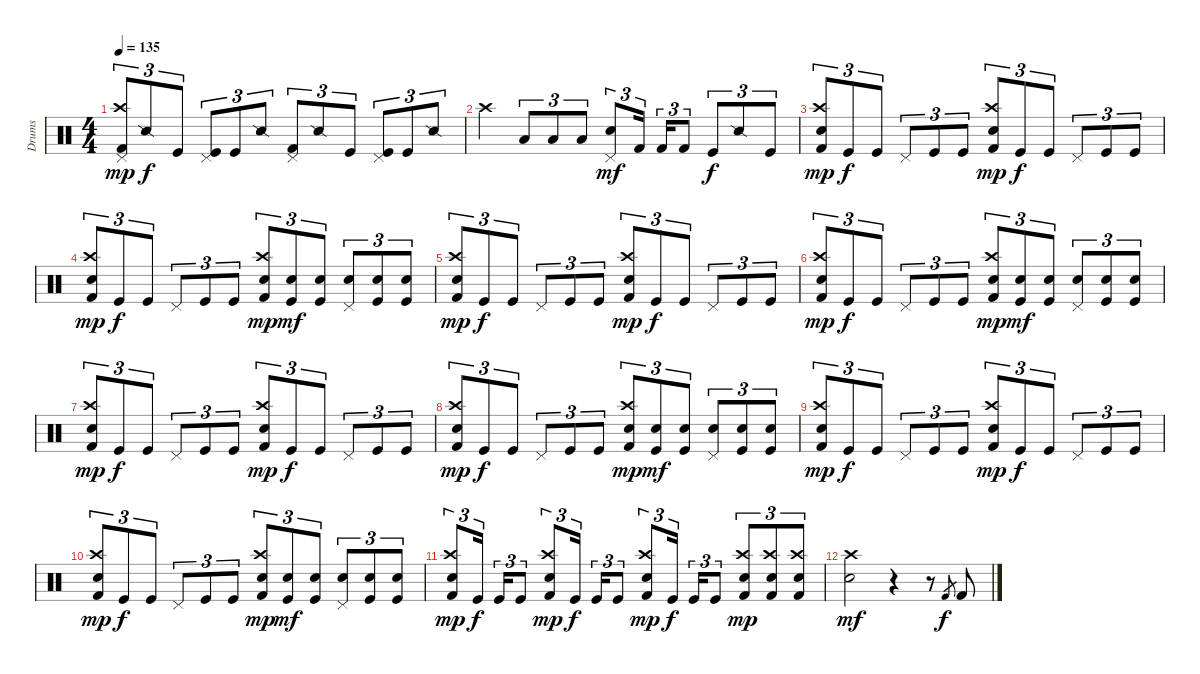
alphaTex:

\track ("Drums" "Drums") {instrument percussion}
\staff {score}
\articulation defaults
\ts (4 4)
\tempo 135
\clef neutral
\ks c
("Kick (hit) 2" "Crash high (hit)" "Pedal Hi-Hat (hit)").8{tu (3 2) dy mp} "Snare (side stick) 2".8{tu (3 2) dy f} "Kick (hit)".8{tu (3 2)} ("Kick (hit)" "Pedal Hi-Hat (hit)").8{tu (3 2)} "Kick (hit)".8{tu (3 2)} "Snare (side stick) 2".8{tu (3 2)} ("Kick (hit) 2" "Pedal Hi-Hat (hit)").8{tu (3 2)} "Snare (side stick) 2".8{tu (3 2)} "Kick (hit)".8{tu (3 2)} ("Kick (hit)" "Pedal Hi-Hat (hit)").8{tu (3 2)} "Kick (hit)".8{tu (3 2)} "Snare (side stick) 2".8{tu (3 2)} |
"Crash high (hit)".4 "Low Floor Tom (hit)".8{tu (3 2)} "Low Floor Tom (hit)".8{tu (3 2)} "Low Floor Tom (hit)".8{tu (3 2)} ("Snare (hit) 2" "Pedal Hi-Hat (hit)").8{tu (3 2) dy mf} "Kick (hit) 2".16{tu (3 2)} "Kick (hit) 2".16{tu (3 2)} "Kick (hit) 2".8{tu (3 2)} "Kick (hit)".8{tu (3 2) dy f} "Snare (side stick) 2".8{tu (3 2)} "Kick (hit)".8{tu (3 2)} |
("Kick (hit) 2" "Snare (hit) 2" "Crash high (hit)").8{tu (3 2) dy mp} "Kick (hit)".8{tu (3 2) dy f} "Kick (hit)".8{tu (3 2)} "Pedal Hi-Hat (hit)".8{tu (3 2)} "Kick (hit)".8{tu (3 2)} "Kick (hit)".8{tu (3 2)} ("Kick (hit) 2" "Snare (hit) 2" "Crash high (hit)").8{tu (3 2) dy mp} "Kick (hit)".8{tu (3 2) dy f} "Kick (hit)".8{tu (3 2)} "Pedal Hi-Hat (hit)".8{tu (3 2)} "Kick (hit)".8{tu (3 2)} "Kick (hit)".8{tu (3 2)} |
("Kick (hit) 2" "Snare (hit) 2" "Crash high (hit)").8{tu (3 2) dy mp} "Kick (hit)".8{tu (3 2) dy f} "Kick (hit)".8{tu (3 2)} "Pedal Hi-Hat (hit)".8{tu (3 2)} "Kick (hit)".8{tu (3 2)} "Kick (hit)".8{tu (3 2)} ("Kick (hit) 2" "Snare (hit) 2" "Crash high (hit)").8{tu (3 2) dy mp} ("Kick (hit)" "Snare (hit) 2").8{tu (3 2) dy mf} ("Kick (hit)" "Snare (hit) 2").8{tu (3 2)} ("Pedal Hi-Hat (hit)" "Snare (hit) 2").8{tu (3 2)} ("Kick (hit)" "Snare (hit) 2").8{tu (3 2)} ("Kick (hit)" "Snare (hit) 2").8{tu (3 2)} |
("Kick (hit) 2" "Snare (hit) 2" "Crash high (hit)").8{tu (3 2) dy mp} "Kick (hit)".8{tu (3 2) dy f} "Kick (hit)".8{tu (3 2)} "Pedal Hi-Hat (hit)".8{tu (3 2)} "Kick (hit)".8{tu (3 2)} "Kick (hit)".8{tu (3 2)} ("Kick (hit) 2" "Snare (hit) 2" "Crash high (hit)").8{tu (3 2) dy mp} "Kick (hit)".8{tu (3 2) dy f} "Kick (hit)".8{tu (3 2)} "Pedal Hi-Hat (hit)".8{tu (3 2)} "Kick (hit)".8{tu (3 2)} "Kick (hit)".8{tu (3 2)} |
("Kick (hit) 2" "Snare (hit) 2" "Crash high (hit)").8{tu (3 2) dy mp} "Kick (hit)".8{tu (3 2) dy f} "Kick (hit)".8{tu (3 2)} "Pedal Hi-Hat (hit)".8{tu (3 2)} "Kick (hit)".8{tu (3 2)} "Kick (hit)".8{tu (3 2)} ("Kick (hit) 2" "Snare (hit) 2" "Crash high (hit)").8{tu (3 2) dy mp} ("Kick (hit)" "Snare (hit) 2").8{tu (3 2) dy mf} ("Kick (hit)" "Snare (hit) 2").8{tu (3 2)} ("Pedal Hi-Hat (hit)" "Snare (hit) 2").8{tu (3 2)} ("Kick (hit)" "Snare (hit) 2").8{tu (3 2)} ("Kick (hit)" "Snare (hit) 2").8{tu (3 2)} |
("Kick (hit) 2" "Snare (hit) 2" "Crash high (hit)").8{tu (3 2) dy mp} "Kick (hit)".8{tu (3 2) dy f} "Kick (hit)".8{tu (3 2)} "Pedal Hi-Hat (hit)".8{tu (3 2)} "Kick (hit)".8{tu (3 2)} "Kick (hit)".8{tu (3 2)} ("Kick (hit) 2" "Snare (hit) 2" "Crash high (hit)").8{tu (3 2) dy mp} "Kick (hit)".8{tu (3 2) dy f} "Kick (hit)".8{tu (3 2)} "Pedal Hi-Hat (hit)".8{tu (3 2)} "Kick (hit)".8{tu (3 2)} "Kick (hit)".8{tu (3 2)} |
("Kick (hit) 2" "Snare (hit) 2" "Crash high (hit)").8{tu (3 2) dy mp} "Kick (hit)".8{tu (3 2) dy f} "Kick (hit)".8{tu (3 2)} "Pedal Hi-Hat (hit)".8{tu (3 2)} "Kick (hit)".8{tu (3 2)} "Kick (hit)".8{tu (3 2)} ("Kick (hit) 2" "Snare (hit) 2" "Crash high (hit)").8{tu (3 2) dy mp} ("Kick (hit)" "Snare (hit) 2").8{tu (3 2) dy mf} ("Kick (hit)" "Snare (hit) 2").8{tu (3 2)} ("Pedal Hi-Hat (hit)" "Snare (hit) 2").8{tu (3 2)} ("Kick (hit)" "Snare (hit) 2").8{tu (3 2)} ("Kick (hit)" "Snare (hit) 2").8{tu (3 2)} |
("Kick (hit) 2" "Snare (hit) 2" "Crash high (hit)").8{tu (3 2) dy mp} "Kick (hit)".8{tu (3 2) dy f} "Kick (hit)".8{tu (3 2)} "Pedal Hi-Hat (hit)".8{tu (3 2)} "Kick (hit)".8{tu (3 2)} "Kick (hit)".8{tu (3 2)} ("Kick (hit) 2" "Snare (hit) 2" "Crash high (hit)").8{tu (3 2) dy mp} "Kick (hit)".8{tu (3 2) dy f} "Kick (hit)".8{tu (3 2)} "Pedal Hi-Hat (hit)".8{tu (3 2)} "Kick (hit)".8{tu (3 2)} "Kick (hit)".8{tu (3 2)} |
("Kick (hit) 2" "Snare (hit) 2" "Crash high (hit)").8{tu (3 2) dy mp} "Kick (hit)".8{tu (3 2) dy f} "Kick (hit)".8{tu (3 2)} "Pedal Hi-Hat (hit)".8{tu (3 2)} "Kick (hit)".8{tu (3 2)} "Kick (hit)".8{tu (3 2)} ("Kick (hit) 2" "Snare (hit) 2" "Crash high (hit)").8{tu (3 2) dy mp} ("Kick (hit)" "Snare (hit) 2").8{tu (3 2) dy mf} ("Kick (hit)" "Snare (hit) 2").8{tu (3 2)} ("Pedal Hi-Hat (hit)" "Snare (hit) 2").8{tu (3 2)} ("Kick (hit)" "Snare (hit) 2").8{tu (3 2)} ("Kick (hit)" "Snare (hit) 2").8{tu (3 2)} |
("Kick (hit) 2" "Snare (hit) 2" "Crash high (hit)").8{tu (3 2) dy mp} "Kick (hit)".16{tu (3 2) dy f} "Kick (hit)".16{tu (3 2)} "Kick (hit)".8{tu (3 2)} ("Kick (hit) 2" "Snare (hit) 2" "Crash high (hit)").8{tu (3 2) dy mp} "Kick (hit)".16{tu (3 2) dy f} "Kick (hit)".16{tu (3 2)} "Kick (hit)".8{tu (3 2)} ("Kick (hit) 2" "Snare (hit) 2" "Crash high (hit)").8{tu (3 2) dy mp} "Kick (hit)".16{tu (3 2) dy f} "Kick (hit)".16{tu (3 2)} "Kick (hit)".8{tu (3 2)} ("Electric Snare (hit)" "Kick (hit) 2" "Crash high (hit)").8{tu (3 2) dy mp} ("Electric Snare (hit)" "Kick (hit) 2" "Crash high (hit)").8{tu (3 2)} ("Electric Snare (hit)" "Kick (hit) 2" "Crash high (hit)").8{tu (3 2)} |
("Electric Snare (hit)" "Crash high (hit)").2{dy mf} r.4 r.8 "Kick (hit) 2".8{gr dy f} "Kick (hit) 2".8
